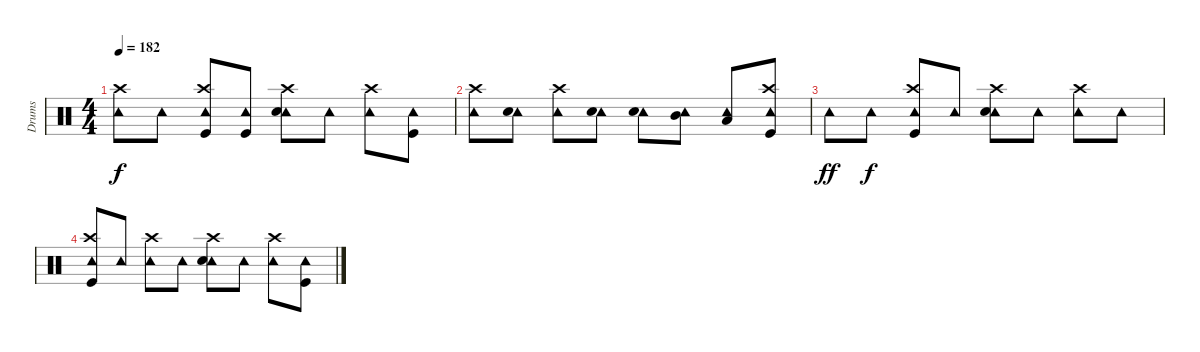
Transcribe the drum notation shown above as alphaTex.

\track ("Drums" "Drums") {instrument percussion}
\staff {score}
\articulation defaults
\ts (4 4)
\tempo 182
\clef neutral
\ks c
("Tambourine (hit)" "Crash high (hit)").8{dy f} "Tambourine (hit)".8 ("Tambourine (hit)" "Crash high (hit)" "Kick (hit)").8 ("Tambourine (hit)" "Kick (hit)").8 ("Tambourine (hit)" "Crash high (hit)" "Electric Snare (hit)").8 "Tambourine (hit)".8 ("Tambourine (hit)" "Crash high (hit)").8 ("Tambourine (hit)" "Kick (hit)").8 |
("Tambourine (hit)" "Crash high (hit)").8 ("Tambourine (hit)" "Electric Snare (hit)").8 ("Tambourine (hit)" "Crash high (hit)").8 ("Tambourine (hit)" "Electric Snare (hit)").8 ("Tambourine (hit)" "Electric Snare (hit)").8 ("Tambourine (hit)" "Mid Tom (hit)").8 ("Tambourine (hit)" "Low Tom (hit)").8 ("Tambourine (hit)" "Crash high (hit)" "Kick (hit)").8 |
"Tambourine (hit)".8{dy ff} "Tambourine (hit)".8{dy f} ("Tambourine (hit)" "Crash high (hit)" "Kick (hit)").8 "Tambourine (hit)".8 ("Tambourine (hit)" "Crash high (hit)" "Electric Snare (hit)").8 "Tambourine (hit)".8 ("Tambourine (hit)" "Crash high (hit)").8 "Tambourine (hit)".8 |
("Tambourine (hit)" "Kick (hit)" "Crash high (hit)").8 "Tambourine (hit)".8 ("Tambourine (hit)" "Crash high (hit)").8 "Tambourine (hit)".8 ("Tambourine (hit)" "Crash high (hit)" "Electric Snare (hit)").8 "Tambourine (hit)".8 ("Tambourine (hit)" "Crash high (hit)").8 ("Tambourine (hit)" "Kick (hit)").8
